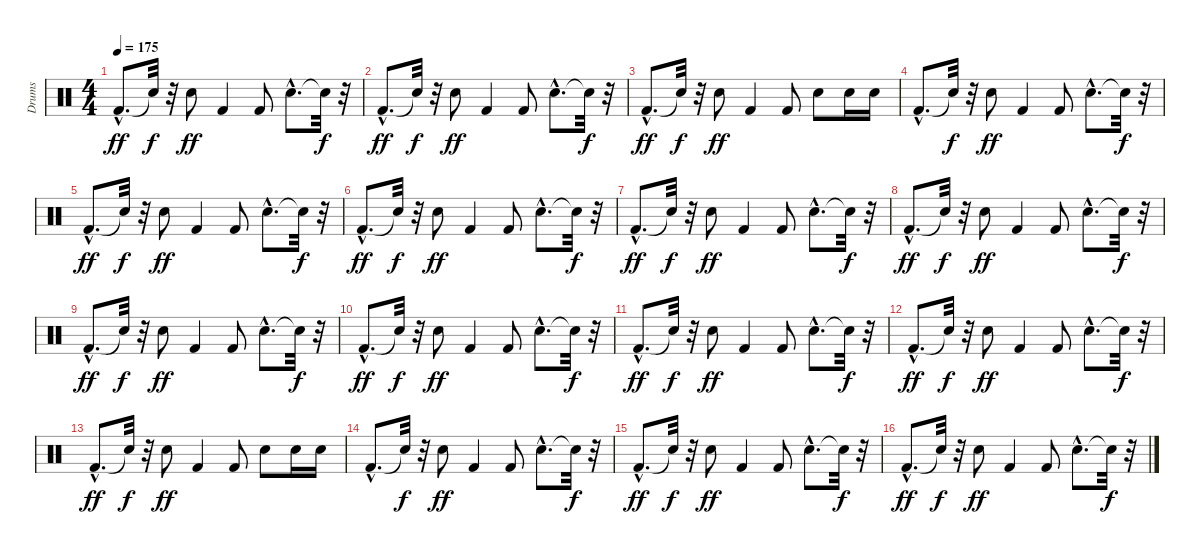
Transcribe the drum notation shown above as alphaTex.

\track ("Drums" "Drums") {instrument percussion}
\staff {score}
\articulation defaults
\ts (4 4)
\tempo 175
\clef neutral
\ks c "Kick (hit) 2"{hac}.8{d dy ff} "Snare (hit)"{t}.32{dy f}
r.32 "Electric Snare (hit)".8{dy ff} "Kick (hit) 2".4 "Kick (hit) 2".8 "Electric Snare (hit)"{hac}.8{d} "Snare (hit)"{t}.32{dy f} r.32 |
"Kick (hit) 2"{hac}.8{d dy ff} "Snare (hit)"{t}.32{dy f} r.32 "Electric Snare (hit)".8{dy ff} "Kick (hit) 2".4 "Kick (hit) 2".8 "Electric Snare (hit)"{hac}.8{d} "Snare (hit)"{t}.32{dy f} r.32 |
"Kick (hit) 2"{hac}.8{d dy ff} "Snare (hit)"{t}.32{dy f} r.32 "Electric Snare (hit)".8{dy ff} "Kick (hit) 2".4 "Kick (hit) 2".8 "Electric Snare (hit)".8 "Electric Snare (hit)".16 "Electric Snare (hit)".16 |
"Kick (hit) 2"{hac}.8{d} "Snare (hit)"{t}.32{dy f} r.32 "Electric Snare (hit)".8{dy ff} "Kick (hit) 2".4 "Kick (hit) 2".8 "Electric Snare (hit)"{hac}.8{d} "Snare (hit)"{t}.32{dy f} r.32 |
"Kick (hit) 2"{hac}.8{d dy ff} "Snare (hit)"{t}.32{dy f} r.32 "Electric Snare (hit)".8{dy ff} "Kick (hit) 2".4 "Kick (hit) 2".8 "Electric Snare (hit)"{hac}.8{d} "Snare (hit)"{t}.32{dy f} r.32 |
"Kick (hit) 2"{hac}.8{d dy ff} "Snare (hit)"{t}.32{dy f} r.32 "Electric Snare (hit)".8{dy ff} "Kick (hit) 2".4 "Kick (hit) 2".8 "Electric Snare (hit)"{hac}.8{d} "Snare (hit)"{t}.32{dy f} r.32 |
"Kick (hit) 2"{hac}.8{d dy ff} "Snare (hit)"{t}.32{dy f} r.32 "Electric Snare (hit)".8{dy ff} "Kick (hit) 2".4 "Kick (hit) 2".8 "Electric Snare (hit)"{hac}.8{d} "Snare (hit)"{t}.32{dy f} r.32 |
"Kick (hit) 2"{hac}.8{d dy ff} "Snare (hit)"{t}.32{dy f} r.32 "Electric Snare (hit)".8{dy ff} "Kick (hit) 2".4 "Kick (hit) 2".8 "Electric Snare (hit)"{hac}.8{d} "Snare (hit)"{t}.32{dy f} r.32 |
"Kick (hit) 2"{hac}.8{d dy ff} "Snare (hit)"{t}.32{dy f} r.32 "Electric Snare (hit)".8{dy ff} "Kick (hit) 2".4 "Kick (hit) 2".8 "Electric Snare (hit)"{hac}.8{d} "Snare (hit)"{t}.32{dy f} r.32 |
"Kick (hit) 2"{hac}.8{d dy ff} "Snare (hit)"{t}.32{dy f} r.32 "Electric Snare (hit)".8{dy ff} "Kick (hit) 2".4 "Kick (hit) 2".8 "Electric Snare (hit)"{hac}.8{d} "Snare (hit)"{t}.32{dy f} r.32 |
"Kick (hit) 2"{hac}.8{d dy ff} "Snare (hit)"{t}.32{dy f} r.32 "Electric Snare (hit)".8{dy ff} "Kick (hit) 2".4 "Kick (hit) 2".8 "Electric Snare (hit)"{hac}.8{d} "Snare (hit)"{t}.32{dy f} r.32 |
"Kick (hit) 2"{hac}.8{d dy ff} "Snare (hit)"{t}.32{dy f} r.32 "Electric Snare (hit)".8{dy ff} "Kick (hit) 2".4 "Kick (hit) 2".8 "Electric Snare (hit)"{hac}.8{d} "Snare (hit)"{t}.32{dy f} r.32 |
"Kick (hit) 2"{hac}.8{d dy ff} "Snare (hit)"{t}.32{dy f} r.32 "Electric Snare (hit)".8{dy ff} "Kick (hit) 2".4 "Kick (hit) 2".8 "Electric Snare (hit)".8 "Electric Snare (hit)".16 "Electric Snare (hit)".16 |
"Kick (hit) 2"{hac}.8{d} "Snare (hit)"{t}.32{dy f} r.32 "Electric Snare (hit)".8{dy ff} "Kick (hit) 2".4 "Kick (hit) 2".8 "Electric Snare (hit)"{hac}.8{d} "Snare (hit)"{t}.32{dy f} r.32 |
"Kick (hit) 2"{hac}.8{d dy ff} "Snare (hit)"{t}.32{dy f} r.32 "Electric Snare (hit)".8{dy ff} "Kick (hit) 2".4 "Kick (hit) 2".8 "Electric Snare (hit)"{hac}.8{d} "Snare (hit)"{t}.32{dy f} r.32 |
"Kick (hit) 2"{hac}.8{d dy ff} "Snare (hit)"{t}.32{dy f} r.32 "Electric Snare (hit)".8{dy ff} "Kick (hit) 2".4 "Kick (hit) 2".8 "Electric Snare (hit)"{hac}.8{d} "Snare (hit)"{t}.32{dy f} r.32
